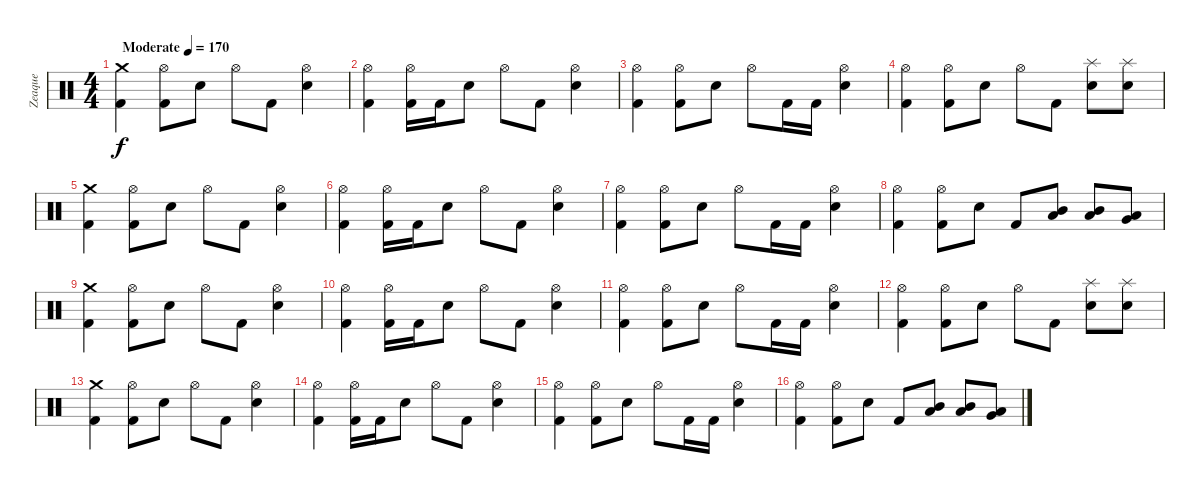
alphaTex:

\track ("Zeaque" "Zeaque") {instrument percussion}
\staff {score}
\articulation defaults
\ts (4 4)
\tempo (170 "Moderate")
\clef neutral
\ks c
("Crash medium (hit)" "Kick (hit) 2").4{dy f} ("Hi-Hat (open)" "Kick (hit) 2").8 "Electric Snare (hit)".8 "Hi-Hat (open)".8 "Kick (hit) 2".8 ("Hi-Hat (open)" "Electric Snare (hit)").4 |
("Hi-Hat (open)" "Kick (hit) 2").4 ("Hi-Hat (open)" "Kick (hit) 2").16 "Kick (hit) 2".16 "Electric Snare (hit)".8 "Hi-Hat (open)".8 "Kick (hit) 2".8 ("Hi-Hat (open)" "Electric Snare (hit)").4 |
("Hi-Hat (open)" "Kick (hit) 2").4 ("Hi-Hat (open)" "Kick (hit) 2").8 "Electric Snare (hit)".8 "Hi-Hat (open)".8 "Kick (hit) 2".16 "Kick (hit) 2".16 ("Hi-Hat (open)" "Electric Snare (hit)").4 |
("Hi-Hat (open)" "Kick (hit) 2").4 ("Hi-Hat (open)" "Kick (hit) 2").8 "Electric Snare (hit)".8 "Hi-Hat (open)".8 "Kick (hit) 2".8 ("Splash (hit)" "Electric Snare (hit)").8 ("Splash (hit)" "Electric Snare (hit)").8 |
("Crash medium (hit)" "Kick (hit) 2").4 ("Hi-Hat (open)" "Kick (hit) 2").8 "Electric Snare (hit)".8 "Hi-Hat (open)".8 "Kick (hit) 2".8 ("Hi-Hat (open)" "Electric Snare (hit)").4 |
("Hi-Hat (open)" "Kick (hit) 2").4 ("Hi-Hat (open)" "Kick (hit) 2").16 "Kick (hit) 2".16 "Electric Snare (hit)".8 "Hi-Hat (open)".8 "Kick (hit) 2".8 ("Hi-Hat (open)" "Electric Snare (hit)").4 |
("Hi-Hat (open)" "Kick (hit) 2").4 ("Hi-Hat (open)" "Kick (hit) 2").8 "Electric Snare (hit)".8 "Hi-Hat (open)".8 "Kick (hit) 2".16 "Kick (hit) 2".16 ("Hi-Hat (open)" "Electric Snare (hit)").4 |
("Hi-Hat (open)" "Kick (hit) 2").4 ("Hi-Hat (open)" "Kick (hit) 2").8 "Electric Snare (hit)".8 "Kick (hit) 2".8 ("Low Tom (hit)" "Mid Tom (hit)").8 ("Low Tom (hit)" "Mid Tom (hit)").8 ("Very Low Tom (hit)" "Low Tom (hit)").8 |
("Crash medium (hit)" "Kick (hit) 2").4 ("Hi-Hat (open)" "Kick (hit) 2").8 "Electric Snare (hit)".8 "Hi-Hat (open)".8 "Kick (hit) 2".8 ("Hi-Hat (open)" "Electric Snare (hit)").4 |
("Hi-Hat (open)" "Kick (hit) 2").4 ("Hi-Hat (open)" "Kick (hit) 2").16 "Kick (hit) 2".16 "Electric Snare (hit)".8 "Hi-Hat (open)".8 "Kick (hit) 2".8 ("Hi-Hat (open)" "Electric Snare (hit)").4 |
("Hi-Hat (open)" "Kick (hit) 2").4 ("Hi-Hat (open)" "Kick (hit) 2").8 "Electric Snare (hit)".8 "Hi-Hat (open)".8 "Kick (hit) 2".16 "Kick (hit) 2".16 ("Hi-Hat (open)" "Electric Snare (hit)").4 |
("Hi-Hat (open)" "Kick (hit) 2").4 ("Hi-Hat (open)" "Kick (hit) 2").8 "Electric Snare (hit)".8 "Hi-Hat (open)".8 "Kick (hit) 2".8 ("Splash (hit)" "Electric Snare (hit)").8 ("Splash (hit)" "Electric Snare (hit)").8 |
("Crash medium (hit)" "Kick (hit) 2").4 ("Hi-Hat (open)" "Kick (hit) 2").8 "Electric Snare (hit)".8 "Hi-Hat (open)".8 "Kick (hit) 2".8 ("Hi-Hat (open)" "Electric Snare (hit)").4 |
("Hi-Hat (open)" "Kick (hit) 2").4 ("Hi-Hat (open)" "Kick (hit) 2").16 "Kick (hit) 2".16 "Electric Snare (hit)".8 "Hi-Hat (open)".8 "Kick (hit) 2".8 ("Hi-Hat (open)" "Electric Snare (hit)").4 |
("Hi-Hat (open)" "Kick (hit) 2").4 ("Hi-Hat (open)" "Kick (hit) 2").8 "Electric Snare (hit)".8 "Hi-Hat (open)".8 "Kick (hit) 2".16 "Kick (hit) 2".16 ("Hi-Hat (open)" "Electric Snare (hit)").4 |
("Hi-Hat (open)" "Kick (hit) 2").4 ("Hi-Hat (open)" "Kick (hit) 2").8 "Electric Snare (hit)".8 "Kick (hit) 2".8 ("Low Tom (hit)" "Mid Tom (hit)").8 ("Low Tom (hit)" "Mid Tom (hit)").8 ("Very Low Tom (hit)" "Low Tom (hit)").8
